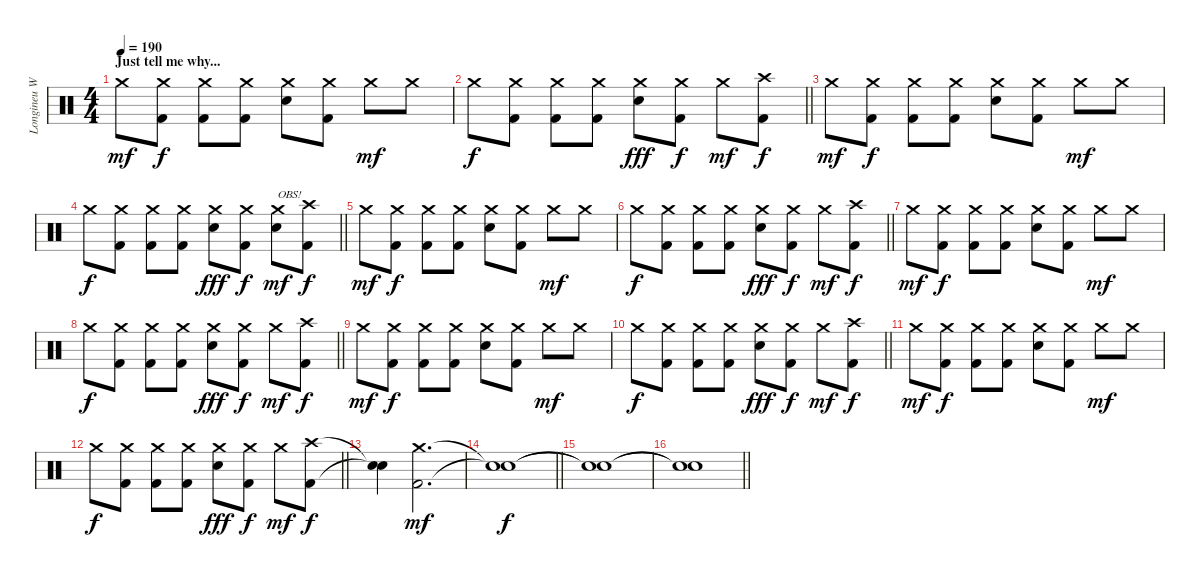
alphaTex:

\track ("Longineu W. Parsons III" "Longineu W") {instrument percussion}
\staff {score}
\articulation defaults
\ts (4 4)
\section ("" "Just tell me why...")
\tempo 190
\clef neutral
\ks c "Crash medium (hit)".8{dy mf}
("Crash medium (hit)" "Kick (hit) 2").8{dy f} ("Crash medium (hit)" "Kick (hit) 2").8 ("Crash medium (hit)" "Kick (hit) 2").8 ("Crash medium (hit)" "Electric Snare (hit)").8 ("Crash medium (hit)" "Kick (hit) 2").8 "Crash medium (hit)".8{dy mf} "Crash medium (hit)".8 |
\barLineRight lightlight "Crash medium (hit)".8{dy f}
("Crash medium (hit)" "Kick (hit) 2").8 ("Crash medium (hit)" "Kick (hit) 2").8 ("Crash medium (hit)" "Kick (hit) 2").8 ("Crash medium (hit)" "Electric Snare (hit)").8{dy fff} ("Crash medium (hit)" "Kick (hit) 2").8{dy f} "Crash medium (hit)".8{dy mf} ("Crash high (hit)" "Kick (hit) 2").8{dy f} |
"Crash medium (hit)".8{dy mf} ("Crash medium (hit)" "Kick (hit) 2").8{dy f} ("Crash medium (hit)" "Kick (hit) 2").8 ("Crash medium (hit)" "Kick (hit) 2").8 ("Crash medium (hit)" "Electric Snare (hit)").8 ("Crash medium (hit)" "Kick (hit) 2").8 "Crash medium (hit)".8{dy mf} "Crash medium (hit)".8 |
\barLineRight lightlight "Crash medium (hit)".8{dy f}
("Crash medium (hit)" "Kick (hit) 2").8 ("Crash medium (hit)" "Kick (hit) 2").8 ("Crash medium (hit)" "Kick (hit) 2").8 ("Crash medium (hit)" "Electric Snare (hit)").8{dy fff} ("Crash medium (hit)" "Kick (hit) 2").8{dy f} ("Crash medium (hit)" "Electric Snare (hit)").8{txt "OBS!" dy mf} ("Crash high (hit)" "Kick (hit) 2").8{dy f} |
"Crash medium (hit)".8{dy mf} ("Crash medium (hit)" "Kick (hit) 2").8{dy f} ("Crash medium (hit)" "Kick (hit) 2").8 ("Crash medium (hit)" "Kick (hit) 2").8 ("Crash medium (hit)" "Electric Snare (hit)").8 ("Crash medium (hit)" "Kick (hit) 2").8 "Crash medium (hit)".8{dy mf} "Crash medium (hit)".8 |
\barLineRight lightlight "Crash medium (hit)".8{dy f}
("Crash medium (hit)" "Kick (hit) 2").8 ("Crash medium (hit)" "Kick (hit) 2").8 ("Crash medium (hit)" "Kick (hit) 2").8 ("Crash medium (hit)" "Electric Snare (hit)").8{dy fff} ("Crash medium (hit)" "Kick (hit) 2").8{dy f} "Crash medium (hit)".8{dy mf} ("Crash high (hit)" "Kick (hit) 2").8{dy f} |
"Crash medium (hit)".8{dy mf} ("Crash medium (hit)" "Kick (hit) 2").8{dy f} ("Crash medium (hit)" "Kick (hit) 2").8 ("Crash medium (hit)" "Kick (hit) 2").8 ("Crash medium (hit)" "Electric Snare (hit)").8 ("Crash medium (hit)" "Kick (hit) 2").8 "Crash medium (hit)".8{dy mf} "Crash medium (hit)".8 |
\barLineRight lightlight "Crash medium (hit)".8{dy f}
("Crash medium (hit)" "Kick (hit) 2").8 ("Crash medium (hit)" "Kick (hit) 2").8 ("Crash medium (hit)" "Kick (hit) 2").8 ("Crash medium (hit)" "Electric Snare (hit)").8{dy fff} ("Crash medium (hit)" "Kick (hit) 2").8{dy f} "Crash medium (hit)".8{dy mf} ("Crash high (hit)" "Kick (hit) 2").8{dy f} |
"Crash medium (hit)".8{dy mf} ("Crash medium (hit)" "Kick (hit) 2").8{dy f} ("Crash medium (hit)" "Kick (hit) 2").8 ("Crash medium (hit)" "Kick (hit) 2").8 ("Crash medium (hit)" "Electric Snare (hit)").8 ("Crash medium (hit)" "Kick (hit) 2").8 "Crash medium (hit)".8{dy mf} "Crash medium (hit)".8 |
\barLineRight lightlight "Crash medium (hit)".8{dy f}
("Crash medium (hit)" "Kick (hit) 2").8 ("Crash medium (hit)" "Kick (hit) 2").8 ("Crash medium (hit)" "Kick (hit) 2").8 ("Crash medium (hit)" "Electric Snare (hit)").8{dy fff} ("Crash medium (hit)" "Kick (hit) 2").8{dy f} "Crash medium (hit)".8{dy mf} ("Crash high (hit)" "Kick (hit) 2").8{dy f} |
"Crash medium (hit)".8{dy mf} ("Crash medium (hit)" "Kick (hit) 2").8{dy f} ("Crash medium (hit)" "Kick (hit) 2").8 ("Crash medium (hit)" "Kick (hit) 2").8 ("Crash medium (hit)" "Electric Snare (hit)").8 ("Crash medium (hit)" "Kick (hit) 2").8 "Crash medium (hit)".8{dy mf} "Crash medium (hit)".8 |
\barLineRight lightlight "Crash medium (hit)".8{dy f}
("Crash medium (hit)" "Kick (hit) 2").8 ("Crash medium (hit)" "Kick (hit) 2").8 ("Crash medium (hit)" "Kick (hit) 2").8 ("Crash medium (hit)" "Electric Snare (hit)").8{dy fff} ("Crash medium (hit)" "Kick (hit) 2").8{dy f} "Crash medium (hit)".8{dy mf} ("Crash high (hit)" "Kick (hit) 2").8{dy f} |
("Snare (hit)"{t} "Snare (hit)"{t}).4 ("Crash medium (hit)" "Kick (hit) 2").2{d dy mf} |
\barLineRight lightlight
("Snare (hit)"{t} "Snare (hit)"{t}).1{dy f} |
("Snare (hit)"{t} "Snare (hit)"{t}).1 |
\barLineRight lightlight
("Snare (hit)"{t} "Snare (hit)"{t}).1
